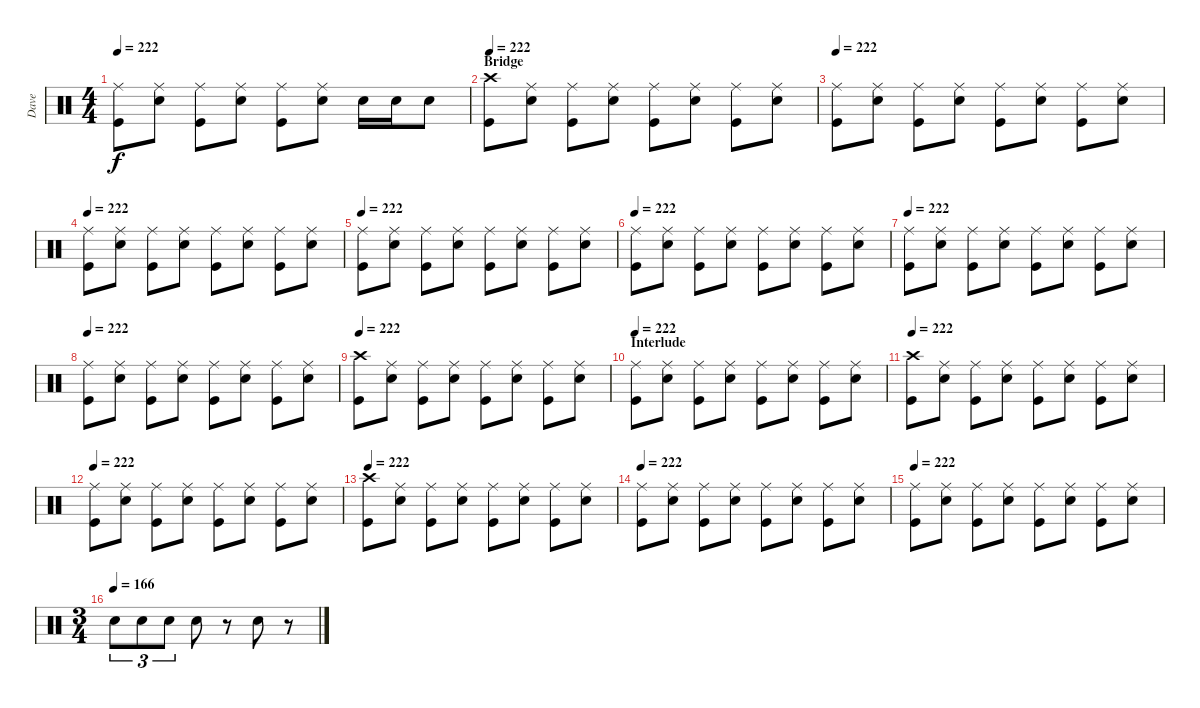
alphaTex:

\track ("Dave" "Dave") {instrument percussion}
\staff {score}
\articulation defaults
\ts (4 4)
\tempo 222
\clef neutral
\ks c
("Ride (middle)" "Kick (hit)").8{dy f} ("Ride (middle)" "Snare (hit) 2").8 ("Ride (middle)" "Kick (hit)").8 ("Ride (middle)" "Snare (hit) 2").8 ("Ride (middle)" "Kick (hit)").8 ("Ride (middle)" "Snare (hit) 2").8 "Snare (hit) 2".16 "Snare (hit) 2".16 "Snare (hit) 2".8 |
\section ("" "Bridge")
\tempo 222
("Crash high (hit)" "Kick (hit)").8 ("Ride (middle)" "Snare (hit) 2").8 ("Ride (middle)" "Kick (hit)").8 ("Ride (middle)" "Snare (hit) 2").8 ("Ride (middle)" "Kick (hit)").8 ("Ride (middle)" "Snare (hit) 2").8 ("Ride (middle)" "Kick (hit)").8 ("Ride (middle)" "Snare (hit) 2").8 |
\tempo 222
("Ride (middle)" "Kick (hit)").8 ("Ride (middle)" "Snare (hit) 2").8 ("Ride (middle)" "Kick (hit)").8 ("Ride (middle)" "Snare (hit) 2").8 ("Ride (middle)" "Kick (hit)").8 ("Ride (middle)" "Snare (hit) 2").8 ("Ride (middle)" "Kick (hit)").8 ("Ride (middle)" "Snare (hit) 2").8 |
\tempo 222
("Ride (middle)" "Kick (hit)").8 ("Ride (middle)" "Snare (hit) 2").8 ("Ride (middle)" "Kick (hit)").8 ("Ride (middle)" "Snare (hit) 2").8 ("Ride (middle)" "Kick (hit)").8 ("Ride (middle)" "Snare (hit) 2").8 ("Ride (middle)" "Kick (hit)").8 ("Ride (middle)" "Snare (hit) 2").8 |
\tempo 222
("Ride (middle)" "Kick (hit)").8 ("Ride (middle)" "Snare (hit) 2").8 ("Ride (middle)" "Kick (hit)").8 ("Ride (middle)" "Snare (hit) 2").8 ("Ride (middle)" "Kick (hit)").8 ("Ride (middle)" "Snare (hit) 2").8 ("Ride (middle)" "Kick (hit)").8 ("Ride (middle)" "Snare (hit) 2").8 |
\tempo 222
("Ride (middle)" "Kick (hit)").8 ("Ride (middle)" "Snare (hit) 2").8 ("Ride (middle)" "Kick (hit)").8 ("Ride (middle)" "Snare (hit) 2").8 ("Ride (middle)" "Kick (hit)").8 ("Ride (middle)" "Snare (hit) 2").8 ("Ride (middle)" "Kick (hit)").8 ("Ride (middle)" "Snare (hit) 2").8 |
\tempo 222
("Ride (middle)" "Kick (hit)").8 ("Ride (middle)" "Snare (hit) 2").8 ("Ride (middle)" "Kick (hit)").8 ("Ride (middle)" "Snare (hit) 2").8 ("Ride (middle)" "Kick (hit)").8 ("Ride (middle)" "Snare (hit) 2").8 ("Ride (middle)" "Kick (hit)").8 ("Ride (middle)" "Snare (hit) 2").8 |
\tempo 222
("Ride (middle)" "Kick (hit)").8 ("Ride (middle)" "Snare (hit) 2").8 ("Ride (middle)" "Kick (hit)").8 ("Ride (middle)" "Snare (hit) 2").8 ("Ride (middle)" "Kick (hit)").8 ("Ride (middle)" "Snare (hit) 2").8 ("Ride (middle)" "Kick (hit)").8 ("Ride (middle)" "Snare (hit) 2").8 |
\tempo 222
("Crash high (hit)" "Kick (hit)").8 ("Ride (middle)" "Snare (hit) 2").8 ("Ride (middle)" "Kick (hit)").8 ("Ride (middle)" "Snare (hit) 2").8 ("Ride (middle)" "Kick (hit)").8 ("Ride (middle)" "Snare (hit) 2").8 ("Ride (middle)" "Kick (hit)").8 ("Ride (middle)" "Snare (hit) 2").8 |
\section ("" "Interlude")
\tempo 222
("Ride (middle)" "Kick (hit)").8 ("Ride (middle)" "Snare (hit) 2").8 ("Ride (middle)" "Kick (hit)").8 ("Ride (middle)" "Snare (hit) 2").8 ("Ride (middle)" "Kick (hit)").8 ("Ride (middle)" "Snare (hit) 2").8 ("Ride (middle)" "Kick (hit)").8 ("Ride (middle)" "Snare (hit) 2").8 |
\tempo 222
("Crash high (hit)" "Kick (hit)").8 ("Ride (middle)" "Snare (hit) 2").8 ("Ride (middle)" "Kick (hit)").8 ("Ride (middle)" "Snare (hit) 2").8 ("Ride (middle)" "Kick (hit)").8 ("Ride (middle)" "Snare (hit) 2").8 ("Ride (middle)" "Kick (hit)").8 ("Ride (middle)" "Snare (hit) 2").8 |
\tempo 222
("Ride (middle)" "Kick (hit)").8 ("Ride (middle)" "Snare (hit) 2").8 ("Ride (middle)" "Kick (hit)").8 ("Ride (middle)" "Snare (hit) 2").8 ("Ride (middle)" "Kick (hit)").8 ("Ride (middle)" "Snare (hit) 2").8 ("Ride (middle)" "Kick (hit)").8 ("Ride (middle)" "Snare (hit) 2").8 |
\tempo 222
("Crash high (hit)" "Kick (hit)").8 ("Ride (middle)" "Snare (hit) 2").8 ("Ride (middle)" "Kick (hit)").8 ("Ride (middle)" "Snare (hit) 2").8 ("Ride (middle)" "Kick (hit)").8 ("Ride (middle)" "Snare (hit) 2").8 ("Ride (middle)" "Kick (hit)").8 ("Ride (middle)" "Snare (hit) 2").8 |
\tempo 222
("Ride (middle)" "Kick (hit)").8 ("Ride (middle)" "Snare (hit) 2").8 ("Ride (middle)" "Kick (hit)").8 ("Ride (middle)" "Snare (hit) 2").8 ("Ride (middle)" "Kick (hit)").8 ("Ride (middle)" "Snare (hit) 2").8 ("Ride (middle)" "Kick (hit)").8 ("Ride (middle)" "Snare (hit) 2").8 |
\tempo 222
("Ride (middle)" "Kick (hit)").8 ("Ride (middle)" "Snare (hit) 2").8 ("Ride (middle)" "Kick (hit)").8 ("Ride (middle)" "Snare (hit) 2").8 ("Ride (middle)" "Kick (hit)").8 ("Ride (middle)" "Snare (hit) 2").8 ("Ride (middle)" "Kick (hit)").8 ("Ride (middle)" "Snare (hit) 2").8 |
\ts (3 4)
\tempo (166)
"Snare (hit) 2".8{tu (3 2)} "Snare (hit) 2".8{tu (3 2)} "Snare (hit) 2".8{tu (3 2)} "Snare (hit) 2".8 r.8 "Snare (hit) 2".8 r.8
